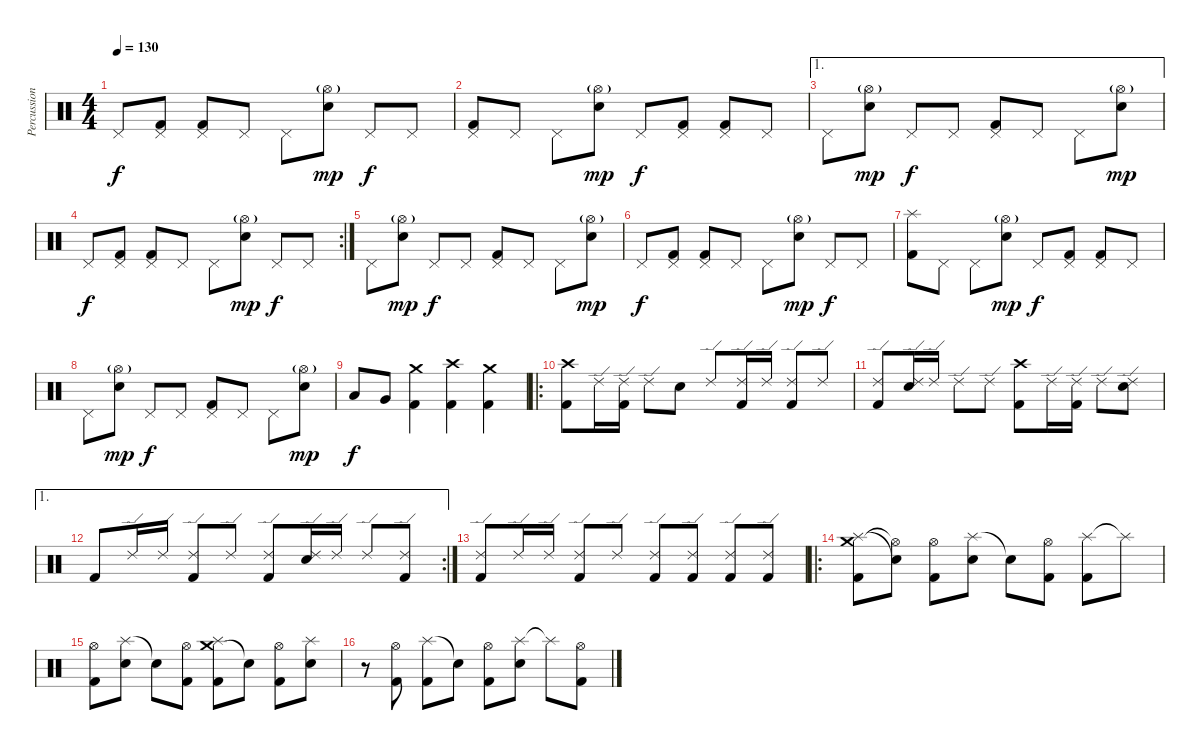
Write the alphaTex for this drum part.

\track ("Percussion" "Percussion") {instrument percussion}
\staff {score}
\articulation defaults
\ts (4 4)
\tempo 130
\clef neutral
\ks c "Pedal Hi-Hat (hit)".8{dy f}
("Pedal Hi-Hat (hit)" "Kick (hit) 2").8 ("Pedal Hi-Hat (hit)" "Kick (hit) 2").8 "Pedal Hi-Hat (hit)".8 "Pedal Hi-Hat (hit)".8 ("Hi-Hat (open)"{g} "Electric Snare (hit)").8{dy mp} "Pedal Hi-Hat (hit)".8{dy f} "Pedal Hi-Hat (hit)".8 |
("Pedal Hi-Hat (hit)" "Kick (hit) 2").8 "Pedal Hi-Hat (hit)".8 "Pedal Hi-Hat (hit)".8 ("Hi-Hat (open)"{g} "Electric Snare (hit)").8{dy mp} "Pedal Hi-Hat (hit)".8{dy f} ("Pedal Hi-Hat (hit)" "Kick (hit) 2").8 ("Pedal Hi-Hat (hit)" "Kick (hit) 2").8 "Pedal Hi-Hat (hit)".8 |
\ae 1 "Pedal Hi-Hat (hit)".8
("Hi-Hat (open)"{g} "Electric Snare (hit)").8{dy mp} "Pedal Hi-Hat (hit)".8{dy f} "Pedal Hi-Hat (hit)".8 ("Pedal Hi-Hat (hit)" "Kick (hit) 2").8 "Pedal Hi-Hat (hit)".8 "Pedal Hi-Hat (hit)".8 ("Hi-Hat (open)"{g} "Electric Snare (hit)").8{dy mp} |
\rc 2 "Pedal Hi-Hat (hit)".8{dy f}
("Pedal Hi-Hat (hit)" "Kick (hit) 2").8 ("Pedal Hi-Hat (hit)" "Kick (hit) 2").8 "Pedal Hi-Hat (hit)".8 "Pedal Hi-Hat (hit)".8 ("Hi-Hat (open)"{g} "Electric Snare (hit)").8{dy mp} "Pedal Hi-Hat (hit)".8{dy f} "Pedal Hi-Hat (hit)".8 |
"Pedal Hi-Hat (hit)".8 ("Hi-Hat (open)"{g} "Electric Snare (hit)").8{dy mp} "Pedal Hi-Hat (hit)".8{dy f} "Pedal Hi-Hat (hit)".8 ("Pedal Hi-Hat (hit)" "Kick (hit) 2").8 "Pedal Hi-Hat (hit)".8 "Pedal Hi-Hat (hit)".8 ("Hi-Hat (open)"{g} "Electric Snare (hit)").8{dy mp} |
"Pedal Hi-Hat (hit)".8{dy f} ("Pedal Hi-Hat (hit)" "Kick (hit) 2").8 ("Pedal Hi-Hat (hit)" "Kick (hit) 2").8 "Pedal Hi-Hat (hit)".8 "Pedal Hi-Hat (hit)".8 ("Hi-Hat (open)"{g} "Electric Snare (hit)").8{dy mp} "Pedal Hi-Hat (hit)".8{dy f} "Pedal Hi-Hat (hit)".8 |
("Splash (hit)" "Kick (hit) 2").8 "Pedal Hi-Hat (hit)".8 "Pedal Hi-Hat (hit)".8 ("Hi-Hat (open)"{g} "Electric Snare (hit)").8{dy mp} "Pedal Hi-Hat (hit)".8{dy f} ("Pedal Hi-Hat (hit)" "Kick (hit) 2").8 ("Pedal Hi-Hat (hit)" "Kick (hit) 2").8 "Pedal Hi-Hat (hit)".8 |
"Pedal Hi-Hat (hit)".8 ("Hi-Hat (open)"{g} "Electric Snare (hit)").8{dy mp} "Pedal Hi-Hat (hit)".8{dy f} "Pedal Hi-Hat (hit)".8 ("Pedal Hi-Hat (hit)" "Kick (hit) 2").8 "Pedal Hi-Hat (hit)".8 "Pedal Hi-Hat (hit)".8 ("Hi-Hat (open)"{g} "Electric Snare (hit)").8{dy mp} |
"Low Tom (hit)".8{dy f} "Very Low Tom (hit)".8 ("Crash medium (hit)" "Kick (hit) 2").4 ("Crash high (hit)" "Kick (hit) 2").4 ("Crash medium (hit)" "Kick (hit) 2").4 |
\ro
("Crash high (hit)" "Kick (hit) 2").8 "Ride (edge) 2".16 ("Ride (edge) 2" "Kick (hit) 2").16 "Ride (edge) 2".8 "Electric Snare (hit)".8 "Ride (edge) 2".8 ("Ride (edge) 2" "Kick (hit) 2").16 "Ride (edge) 2".16 ("Ride (edge) 2" "Kick (hit) 2").8 "Ride (edge) 2".8 |
("Ride (edge) 2" "Kick (hit) 2").8 ("Ride (edge) 2" "Electric Snare (hit)").16 "Ride (edge) 2".16 "Ride (edge) 2".8 "Ride (edge) 2".8 ("Crash high (hit)" "Kick (hit) 2").8 "Ride (edge) 2".16 ("Ride (edge) 2" "Kick (hit) 2").16 "Ride (edge) 2".8 ("Ride (edge) 2" "Electric Snare (hit)").8 |
\ae 1
\rc 2 "Kick (hit) 2".8 "Ride (edge) 2".16 "Ride (edge) 2".16
("Ride (edge) 2" "Kick (hit) 2").8 "Ride (edge) 2".8 ("Ride (edge) 2" "Kick (hit) 2").8 ("Ride (edge) 2" "Electric Snare (hit)").16 "Ride (edge) 2".16 "Ride (edge) 2".8 ("Ride (edge) 2" "Kick (hit) 2").8 |
("Ride (edge) 2" "Kick (hit) 2").8 "Ride (edge) 2".16 "Ride (edge) 2".16 ("Ride (edge) 2" "Kick (hit) 2").8 "Ride (edge) 2".8 ("Ride (edge) 2" "Kick (hit) 2").8 ("Ride (edge) 2" "Kick (hit) 2").8 ("Ride (edge) 2" "Kick (hit) 2").8 ("Ride (edge) 2" "Kick (hit) 2").8 |
\ro
("Crash medium (hit)" "Splash (hit)" "Kick (hit) 2").8 ("Hi-Hat (open)"{t} "Snare (hit)"{t}).8 ("Hi-Hat (open)" "Kick (hit) 2").8 ("Splash (hit)" "Electric Snare (hit)").8 "Snare (hit)"{t}.8 ("Hi-Hat (open)" "Kick (hit) 2").8 ("Splash (hit)" "Kick (hit) 2").8 "Splash (hit)"{t}.8 |
("Hi-Hat (open)" "Kick (hit) 2").8 ("Splash (hit)" "Electric Snare (hit)").8 "Snare (hit)"{t}.8 ("Hi-Hat (open)" "Kick (hit) 2").8 ("Crash medium (hit)" "Splash (hit)" "Kick (hit) 2").8 "Snare (hit)"{t}.8 ("Hi-Hat (open)" "Kick (hit) 2").8 ("Splash (hit)" "Electric Snare (hit)").8 |
r.8 ("Hi-Hat (open)" "Kick (hit) 2").8 ("Splash (hit)" "Kick (hit) 2").8 "Snare (hit)"{t}.8 ("Hi-Hat (open)" "Kick (hit) 2").8 ("Splash (hit)" "Electric Snare (hit)").8 "Splash (hit)"{t}.8 ("Hi-Hat (open)" "Kick (hit) 2").8
